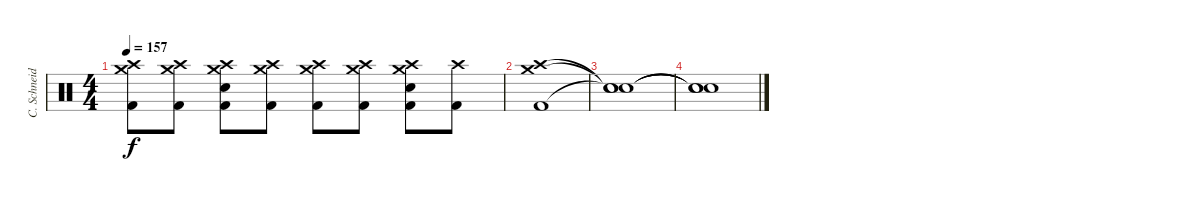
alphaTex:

\track ("C. Schneider" "C. Schneid") {instrument percussion}
\staff {score}
\articulation defaults
\ts (4 4)
\tempo 157
\clef neutral
\ks c
("Kick (hit) 2" "Crash high (hit)" "Crash medium (hit)").8{dy f} ("Kick (hit) 2" "Crash high (hit)" "Crash medium (hit)").8 ("Kick (hit) 2" "Electric Snare (hit)" "Crash high (hit)" "Crash medium (hit)").8 ("Kick (hit) 2" "Crash high (hit)" "Crash medium (hit)").8 ("Kick (hit) 2" "Crash high (hit)" "Crash medium (hit)").8 ("Kick (hit) 2" "Crash high (hit)" "Crash medium (hit)").8 ("Kick (hit) 2" "Electric Snare (hit)" "Crash high (hit)" "Crash medium (hit)").8 ("Kick (hit) 2" "Crash high (hit)").8 |
("Kick (hit) 2" "Crash high (hit)" "Crash medium (hit)").1 |
("Snare (hit)"{t} "Snare (hit)"{t} "Snare (hit)"{t}).1 |
("Snare (hit)"{t} "Snare (hit)"{t} "Snare (hit)"{t}).1
